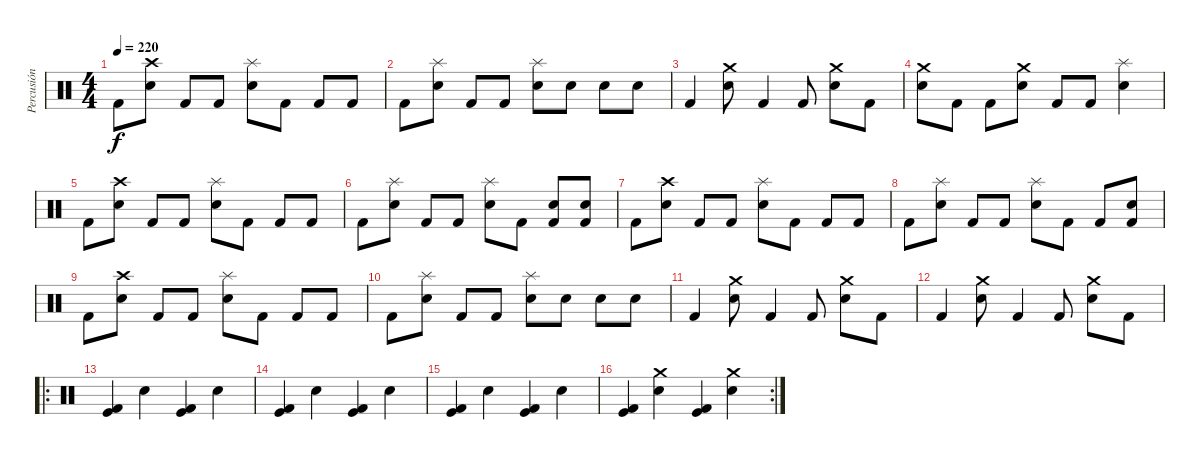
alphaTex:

\track ("Percusión" "Percusión") {instrument percussion}
\staff {score}
\articulation defaults
\ts (4 4)
\tempo 220
\clef neutral
\ks c "Kick (hit) 2".8{dy f}
("Crash high (hit)" "Snare (hit) 2").8 "Kick (hit) 2".8 "Kick (hit) 2".8 ("Splash (hit)" "Snare (hit) 2").8 "Kick (hit) 2".8 "Kick (hit) 2".8 "Kick (hit) 2".8 |
"Kick (hit) 2".8 ("Splash (hit)" "Snare (hit) 2").8 "Kick (hit) 2".8 "Kick (hit) 2".8 ("Splash (hit)" "Snare (hit) 2").8 "Snare (hit) 2".8 "Snare (hit) 2".8 "Snare (hit) 2".8 |
"Kick (hit) 2".4 ("Crash medium (hit)" "Snare (hit) 2").8 "Kick (hit) 2".4 "Kick (hit) 2".8 ("Crash medium (hit)" "Snare (hit) 2").8 "Kick (hit) 2".8 |
("Crash medium (hit)" "Snare (hit) 2").8 "Kick (hit) 2".8 "Kick (hit) 2".8 ("Crash medium (hit)" "Snare (hit) 2").8 "Kick (hit) 2".8 "Kick (hit) 2".8 ("Splash (hit)" "Snare (hit) 2").4 |
"Kick (hit) 2".8 ("Crash high (hit)" "Snare (hit) 2").8 "Kick (hit) 2".8 "Kick (hit) 2".8 ("Splash (hit)" "Snare (hit) 2").8 "Kick (hit) 2".8 "Kick (hit) 2".8 "Kick (hit) 2".8 |
"Kick (hit) 2".8 ("Splash (hit)" "Snare (hit) 2").8 "Kick (hit) 2".8 "Kick (hit) 2".8 ("Splash (hit)" "Snare (hit) 2").8 "Kick (hit) 2".8 ("Snare (hit) 2" "Kick (hit) 2").8 ("Snare (hit) 2" "Kick (hit) 2").8 |
"Kick (hit) 2".8 ("Crash high (hit)" "Snare (hit) 2").8 "Kick (hit) 2".8 "Kick (hit) 2".8 ("Splash (hit)" "Snare (hit) 2").8 "Kick (hit) 2".8 "Kick (hit) 2".8 "Kick (hit) 2".8 |
"Kick (hit) 2".8 ("Splash (hit)" "Snare (hit) 2").8 "Kick (hit) 2".8 "Kick (hit) 2".8 ("Splash (hit)" "Snare (hit) 2").8 "Kick (hit) 2".8 "Kick (hit) 2".8 ("Snare (hit) 2" "Kick (hit) 2").8 |
"Kick (hit) 2".8 ("Crash high (hit)" "Snare (hit) 2").8 "Kick (hit) 2".8 "Kick (hit) 2".8 ("Splash (hit)" "Snare (hit) 2").8 "Kick (hit) 2".8 "Kick (hit) 2".8 "Kick (hit) 2".8 |
"Kick (hit) 2".8 ("Splash (hit)" "Snare (hit) 2").8 "Kick (hit) 2".8 "Kick (hit) 2".8 ("Splash (hit)" "Snare (hit) 2").8 "Snare (hit) 2".8 "Snare (hit) 2".8 "Snare (hit) 2".8 |
"Kick (hit) 2".4 ("Crash medium (hit)" "Snare (hit) 2").8 "Kick (hit) 2".4 "Kick (hit) 2".8 ("Crash medium (hit)" "Snare (hit) 2").8 "Kick (hit) 2".8 |
"Kick (hit) 2".4 ("Crash medium (hit)" "Snare (hit) 2").8 "Kick (hit) 2".4 "Kick (hit) 2".8 ("Crash medium (hit)" "Snare (hit) 2").8 "Kick (hit) 2".8 |
\ro
("Kick (hit) 2" "Kick (hit)").4 "Snare (hit) 2".4 ("Kick (hit) 2" "Kick (hit)").4 "Snare (hit) 2".4 |
("Kick (hit) 2" "Kick (hit)").4 "Snare (hit) 2".4 ("Kick (hit) 2" "Kick (hit)").4 "Snare (hit) 2".4 |
("Kick (hit) 2" "Kick (hit)").4 "Snare (hit) 2".4 ("Kick (hit) 2" "Kick (hit)").4 "Snare (hit) 2".4 |
\rc 2
("Kick (hit) 2" "Kick (hit)").4 ("Crash medium (hit)" "Snare (hit) 2").4 ("Kick (hit) 2" "Kick (hit)").4 ("Crash medium (hit)" "Snare (hit) 2").4
